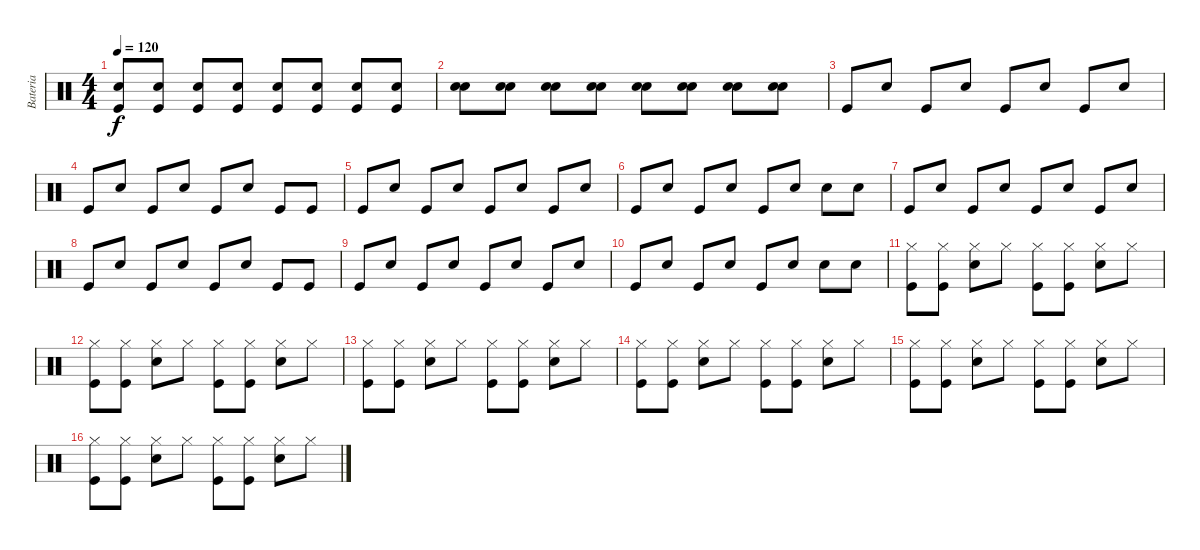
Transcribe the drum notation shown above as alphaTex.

\track ("Bateria" "Bateria") {instrument percussion}
\staff {score}
\articulation defaults
\ts (4 4)
\tempo 120
\clef neutral
\ks c
("Kick (hit)" "Snare (hit) 2").8{dy f} ("Kick (hit)" "Snare (hit) 2").8 ("Kick (hit)" "Snare (hit) 2").8 ("Kick (hit)" "Snare (hit) 2").8 ("Kick (hit)" "Snare (hit) 2").8 ("Kick (hit)" "Snare (hit) 2").8 ("Kick (hit)" "Snare (hit) 2").8 ("Kick (hit)" "Snare (hit) 2").8 |
("Electric Snare (hit)" "Snare (hit) 2").8 ("Electric Snare (hit)" "Snare (hit) 2").8 ("Electric Snare (hit)" "Snare (hit) 2").8 ("Electric Snare (hit)" "Snare (hit) 2").8 ("Electric Snare (hit)" "Snare (hit) 2").8 ("Electric Snare (hit)" "Snare (hit) 2").8 ("Electric Snare (hit)" "Snare (hit) 2").8 ("Electric Snare (hit)" "Snare (hit) 2").8 |
"Kick (hit)".8 "Electric Snare (hit)".8 "Kick (hit)".8 "Electric Snare (hit)".8 "Kick (hit)".8 "Electric Snare (hit)".8 "Kick (hit)".8 "Electric Snare (hit)".8 |
"Kick (hit)".8 "Electric Snare (hit)".8 "Kick (hit)".8 "Electric Snare (hit)".8 "Kick (hit)".8 "Electric Snare (hit)".8 "Kick (hit)".8 "Kick (hit)".8 |
"Kick (hit)".8 "Electric Snare (hit)".8 "Kick (hit)".8 "Electric Snare (hit)".8 "Kick (hit)".8 "Electric Snare (hit)".8 "Kick (hit)".8 "Electric Snare (hit)".8 |
"Kick (hit)".8 "Electric Snare (hit)".8 "Kick (hit)".8 "Electric Snare (hit)".8 "Kick (hit)".8 "Electric Snare (hit)".8 "Electric Snare (hit)".8 "Electric Snare (hit)".8 |
"Kick (hit)".8 "Electric Snare (hit)".8 "Kick (hit)".8 "Electric Snare (hit)".8 "Kick (hit)".8 "Electric Snare (hit)".8 "Kick (hit)".8 "Electric Snare (hit)".8 |
"Kick (hit)".8 "Electric Snare (hit)".8 "Kick (hit)".8 "Electric Snare (hit)".8 "Kick (hit)".8 "Electric Snare (hit)".8 "Kick (hit)".8 "Kick (hit)".8 |
"Kick (hit)".8 "Electric Snare (hit)".8 "Kick (hit)".8 "Electric Snare (hit)".8 "Kick (hit)".8 "Electric Snare (hit)".8 "Kick (hit)".8 "Electric Snare (hit)".8 |
"Kick (hit)".8 "Electric Snare (hit)".8 "Kick (hit)".8 "Electric Snare (hit)".8 "Kick (hit)".8 "Electric Snare (hit)".8 "Electric Snare (hit)".8 "Electric Snare (hit)".8 |
("Hi-Hat (closed)" "Kick (hit)").8 ("Hi-Hat (closed)" "Kick (hit)").8 ("Hi-Hat (closed)" "Snare (hit) 2").8 "Hi-Hat (closed)".8 ("Hi-Hat (closed)" "Kick (hit)").8 ("Hi-Hat (closed)" "Kick (hit)").8 ("Hi-Hat (closed)" "Snare (hit) 2").8 "Hi-Hat (closed)".8 |
("Hi-Hat (closed)" "Kick (hit)").8 ("Hi-Hat (closed)" "Kick (hit)").8 ("Hi-Hat (closed)" "Snare (hit) 2").8 "Hi-Hat (closed)".8 ("Hi-Hat (closed)" "Kick (hit)").8 ("Hi-Hat (closed)" "Kick (hit)").8 ("Hi-Hat (closed)" "Snare (hit) 2").8 "Hi-Hat (closed)".8 |
("Hi-Hat (closed)" "Kick (hit)").8 ("Hi-Hat (closed)" "Kick (hit)").8 ("Hi-Hat (closed)" "Snare (hit) 2").8 "Hi-Hat (closed)".8 ("Hi-Hat (closed)" "Kick (hit)").8 ("Hi-Hat (closed)" "Kick (hit)").8 ("Hi-Hat (closed)" "Snare (hit) 2").8 "Hi-Hat (closed)".8 |
("Hi-Hat (closed)" "Kick (hit)").8 ("Hi-Hat (closed)" "Kick (hit)").8 ("Hi-Hat (closed)" "Snare (hit) 2").8 "Hi-Hat (closed)".8 ("Hi-Hat (closed)" "Kick (hit)").8 ("Hi-Hat (closed)" "Kick (hit)").8 ("Hi-Hat (closed)" "Snare (hit) 2").8 "Hi-Hat (closed)".8 |
("Hi-Hat (closed)" "Kick (hit)").8 ("Hi-Hat (closed)" "Kick (hit)").8 ("Hi-Hat (closed)" "Snare (hit) 2").8 "Hi-Hat (closed)".8 ("Hi-Hat (closed)" "Kick (hit)").8 ("Hi-Hat (closed)" "Kick (hit)").8 ("Hi-Hat (closed)" "Snare (hit) 2").8 "Hi-Hat (closed)".8 |
("Hi-Hat (closed)" "Kick (hit)").8 ("Hi-Hat (closed)" "Kick (hit)").8 ("Hi-Hat (closed)" "Snare (hit) 2").8 "Hi-Hat (closed)".8 ("Hi-Hat (closed)" "Kick (hit)").8 ("Hi-Hat (closed)" "Kick (hit)").8 ("Hi-Hat (closed)" "Snare (hit) 2").8 "Hi-Hat (closed)".8
